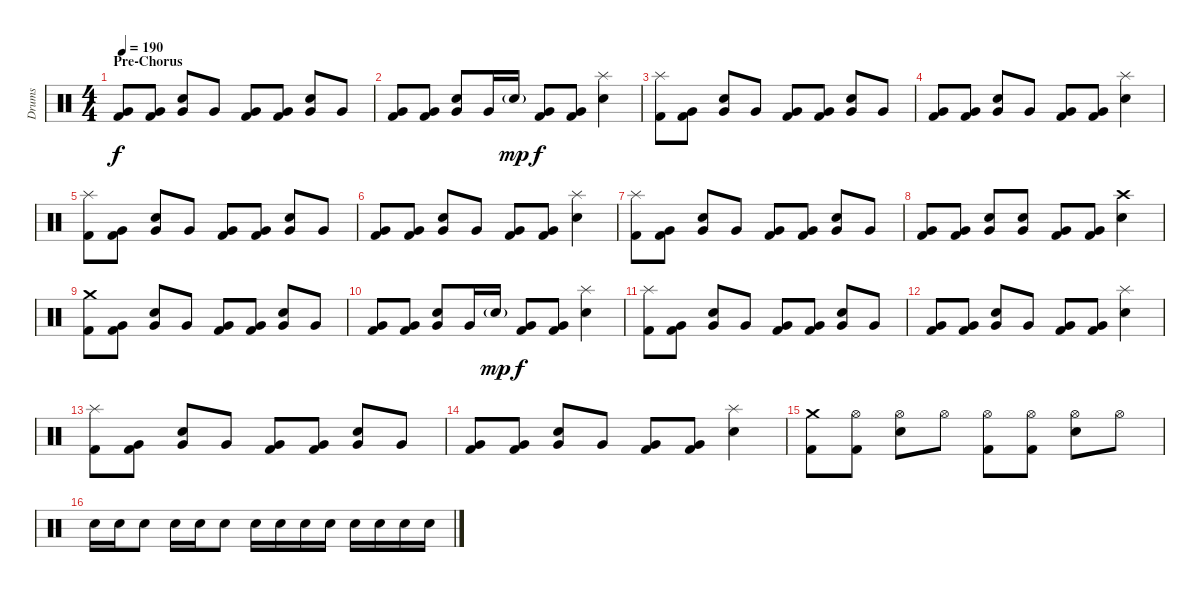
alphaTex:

\track ("Drums" "Drums") {instrument percussion}
\staff {score}
\articulation defaults
\ts (4 4)
\section ("" "Pre-Chorus")
\tempo 190
\clef neutral
\ks c
("Very Low Tom (hit)" "Kick (hit) 2").8{dy f} ("Very Low Tom (hit)" "Kick (hit) 2").8 ("Electric Snare (hit)" "Very Low Tom (hit)").8 "Very Low Tom (hit)".8 ("Very Low Tom (hit)" "Kick (hit) 2").8 ("Very Low Tom (hit)" "Kick (hit) 2").8 ("Electric Snare (hit)" "Very Low Tom (hit)").8 "Very Low Tom (hit)".8 |
("Very Low Tom (hit)" "Kick (hit) 2").8 ("Very Low Tom (hit)" "Kick (hit) 2").8 ("Electric Snare (hit)" "Very Low Tom (hit)").8 "Very Low Tom (hit)".16 "Electric Snare (hit)"{g}.16{dy mp} ("Very Low Tom (hit)" "Kick (hit) 2").8{dy f} ("Very Low Tom (hit)" "Kick (hit) 2").8 ("Splash (hit)" "Electric Snare (hit)").4 |
("Splash (hit)" "Kick (hit) 2").8 ("Very Low Tom (hit)" "Kick (hit) 2").8 ("Electric Snare (hit)" "Very Low Tom (hit)").8 "Very Low Tom (hit)".8 ("Very Low Tom (hit)" "Kick (hit) 2").8 ("Very Low Tom (hit)" "Kick (hit) 2").8 ("Electric Snare (hit)" "Very Low Tom (hit)").8 "Very Low Tom (hit)".8 |
("Very Low Tom (hit)" "Kick (hit) 2").8 ("Very Low Tom (hit)" "Kick (hit) 2").8 ("Electric Snare (hit)" "Very Low Tom (hit)").8 "Very Low Tom (hit)".8 ("Very Low Tom (hit)" "Kick (hit) 2").8 ("Very Low Tom (hit)" "Kick (hit) 2").8 ("Splash (hit)" "Electric Snare (hit)").4 |
("Splash (hit)" "Kick (hit) 2").8 ("Very Low Tom (hit)" "Kick (hit) 2").8 ("Electric Snare (hit)" "Very Low Tom (hit)").8 "Very Low Tom (hit)".8 ("Very Low Tom (hit)" "Kick (hit) 2").8 ("Very Low Tom (hit)" "Kick (hit) 2").8 ("Electric Snare (hit)" "Very Low Tom (hit)").8 "Very Low Tom (hit)".8 |
("Very Low Tom (hit)" "Kick (hit) 2").8 ("Very Low Tom (hit)" "Kick (hit) 2").8 ("Electric Snare (hit)" "Very Low Tom (hit)").8 "Very Low Tom (hit)".8 ("Very Low Tom (hit)" "Kick (hit) 2").8 ("Very Low Tom (hit)" "Kick (hit) 2").8 ("Splash (hit)" "Electric Snare (hit)").4 |
("Splash (hit)" "Kick (hit) 2").8 ("Very Low Tom (hit)" "Kick (hit) 2").8 ("Electric Snare (hit)" "Very Low Tom (hit)").8 "Very Low Tom (hit)".8 ("Very Low Tom (hit)" "Kick (hit) 2").8 ("Very Low Tom (hit)" "Kick (hit) 2").8 ("Electric Snare (hit)" "Very Low Tom (hit)").8 "Very Low Tom (hit)".8 |
("Very Low Tom (hit)" "Kick (hit) 2").8 ("Very Low Tom (hit)" "Kick (hit) 2").8 ("Electric Snare (hit)" "Very Low Tom (hit)").8 ("Electric Snare (hit)" "Very Low Tom (hit)").8 ("Very Low Tom (hit)" "Kick (hit) 2").8 ("Very Low Tom (hit)" "Kick (hit) 2").8 ("Crash high (hit)" "Electric Snare (hit)").4 |
("Crash medium (hit)" "Kick (hit) 2").8 ("Very Low Tom (hit)" "Kick (hit) 2").8 ("Electric Snare (hit)" "Very Low Tom (hit)").8 "Very Low Tom (hit)".8 ("Very Low Tom (hit)" "Kick (hit) 2").8 ("Very Low Tom (hit)" "Kick (hit) 2").8 ("Electric Snare (hit)" "Very Low Tom (hit)").8 "Very Low Tom (hit)".8 |
("Very Low Tom (hit)" "Kick (hit) 2").8 ("Very Low Tom (hit)" "Kick (hit) 2").8 ("Electric Snare (hit)" "Very Low Tom (hit)").8 "Very Low Tom (hit)".16 "Electric Snare (hit)"{g}.16{dy mp} ("Very Low Tom (hit)" "Kick (hit) 2").8{dy f} ("Very Low Tom (hit)" "Kick (hit) 2").8 ("Splash (hit)" "Electric Snare (hit)").4 |
("Splash (hit)" "Kick (hit) 2").8 ("Very Low Tom (hit)" "Kick (hit) 2").8 ("Electric Snare (hit)" "Very Low Tom (hit)").8 "Very Low Tom (hit)".8 ("Very Low Tom (hit)" "Kick (hit) 2").8 ("Very Low Tom (hit)" "Kick (hit) 2").8 ("Electric Snare (hit)" "Very Low Tom (hit)").8 "Very Low Tom (hit)".8 |
("Very Low Tom (hit)" "Kick (hit) 2").8 ("Very Low Tom (hit)" "Kick (hit) 2").8 ("Electric Snare (hit)" "Very Low Tom (hit)").8 "Very Low Tom (hit)".8 ("Very Low Tom (hit)" "Kick (hit) 2").8 ("Very Low Tom (hit)" "Kick (hit) 2").8 ("Splash (hit)" "Electric Snare (hit)").4 |
("Splash (hit)" "Kick (hit) 2").8 ("Very Low Tom (hit)" "Kick (hit) 2").8 ("Electric Snare (hit)" "Very Low Tom (hit)").8 "Very Low Tom (hit)".8 ("Very Low Tom (hit)" "Kick (hit) 2").8 ("Very Low Tom (hit)" "Kick (hit) 2").8 ("Electric Snare (hit)" "Very Low Tom (hit)").8 "Very Low Tom (hit)".8 |
("Very Low Tom (hit)" "Kick (hit) 2").8 ("Very Low Tom (hit)" "Kick (hit) 2").8 ("Electric Snare (hit)" "Very Low Tom (hit)").8 "Very Low Tom (hit)".8 ("Very Low Tom (hit)" "Kick (hit) 2").8 ("Very Low Tom (hit)" "Kick (hit) 2").8 ("Splash (hit)" "Electric Snare (hit)").4 |
("Crash medium (hit)" "Kick (hit) 2").8 ("Hi-Hat (open)" "Kick (hit) 2").8 ("Hi-Hat (open)" "Electric Snare (hit)").8 "Hi-Hat (open)".8 ("Hi-Hat (open)" "Kick (hit) 2").8 ("Hi-Hat (open)" "Kick (hit) 2").8 ("Hi-Hat (open)" "Electric Snare (hit)").8 "Hi-Hat (open)".8 |
"Electric Snare (hit)".16 "Electric Snare (hit)".16 "Electric Snare (hit)".8 "Electric Snare (hit)".16 "Electric Snare (hit)".16 "Electric Snare (hit)".8 "Electric Snare (hit)".16 "Electric Snare (hit)".16 "Electric Snare (hit)".16 "Electric Snare (hit)".16 "Electric Snare (hit)".16 "Electric Snare (hit)".16 "Electric Snare (hit)".16 "Electric Snare (hit)".16
